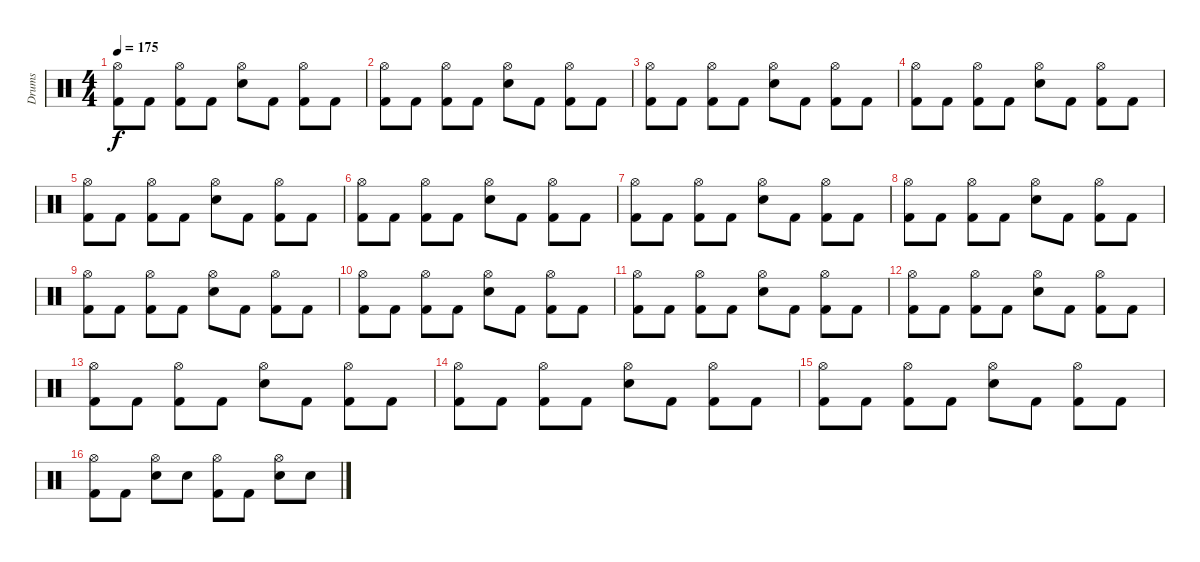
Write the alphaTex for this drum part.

\track ("Drums" "Drums") {instrument percussion}
\staff {score}
\articulation defaults
\ts (4 4)
\tempo 175
\clef neutral
\ks c
("Hi-Hat (open)" "Kick (hit) 2").8{dy f} "Kick (hit) 2".8 ("Hi-Hat (open)" "Kick (hit) 2").8 "Kick (hit) 2".8 ("Hi-Hat (open)" "Electric Snare (hit)").8 "Kick (hit) 2".8 ("Hi-Hat (open)" "Kick (hit) 2").8 "Kick (hit) 2".8 |
("Hi-Hat (open)" "Kick (hit) 2").8 "Kick (hit) 2".8 ("Hi-Hat (open)" "Kick (hit) 2").8 "Kick (hit) 2".8 ("Hi-Hat (open)" "Electric Snare (hit)").8 "Kick (hit) 2".8 ("Hi-Hat (open)" "Kick (hit) 2").8 "Kick (hit) 2".8 |
("Hi-Hat (open)" "Kick (hit) 2").8 "Kick (hit) 2".8 ("Hi-Hat (open)" "Kick (hit) 2").8 "Kick (hit) 2".8 ("Hi-Hat (open)" "Electric Snare (hit)").8 "Kick (hit) 2".8 ("Hi-Hat (open)" "Kick (hit) 2").8 "Kick (hit) 2".8 |
("Hi-Hat (open)" "Kick (hit) 2").8 "Kick (hit) 2".8 ("Hi-Hat (open)" "Kick (hit) 2").8 "Kick (hit) 2".8 ("Hi-Hat (open)" "Electric Snare (hit)").8 "Kick (hit) 2".8 ("Hi-Hat (open)" "Kick (hit) 2").8 "Kick (hit) 2".8 |
("Hi-Hat (open)" "Kick (hit) 2").8 "Kick (hit) 2".8 ("Hi-Hat (open)" "Kick (hit) 2").8 "Kick (hit) 2".8 ("Hi-Hat (open)" "Electric Snare (hit)").8 "Kick (hit) 2".8 ("Hi-Hat (open)" "Kick (hit) 2").8 "Kick (hit) 2".8 |
("Hi-Hat (open)" "Kick (hit) 2").8 "Kick (hit) 2".8 ("Hi-Hat (open)" "Kick (hit) 2").8 "Kick (hit) 2".8 ("Hi-Hat (open)" "Electric Snare (hit)").8 "Kick (hit) 2".8 ("Hi-Hat (open)" "Kick (hit) 2").8 "Kick (hit) 2".8 |
("Hi-Hat (open)" "Kick (hit) 2").8 "Kick (hit) 2".8 ("Hi-Hat (open)" "Kick (hit) 2").8 "Kick (hit) 2".8 ("Hi-Hat (open)" "Electric Snare (hit)").8 "Kick (hit) 2".8 ("Hi-Hat (open)" "Kick (hit) 2").8 "Kick (hit) 2".8 |
("Hi-Hat (open)" "Kick (hit) 2").8 "Kick (hit) 2".8 ("Hi-Hat (open)" "Kick (hit) 2").8 "Kick (hit) 2".8 ("Hi-Hat (open)" "Electric Snare (hit)").8 "Kick (hit) 2".8 ("Hi-Hat (open)" "Kick (hit) 2").8 "Kick (hit) 2".8 |
("Hi-Hat (open)" "Kick (hit) 2").8 "Kick (hit) 2".8 ("Hi-Hat (open)" "Kick (hit) 2").8 "Kick (hit) 2".8 ("Hi-Hat (open)" "Electric Snare (hit)").8 "Kick (hit) 2".8 ("Hi-Hat (open)" "Kick (hit) 2").8 "Kick (hit) 2".8 |
("Hi-Hat (open)" "Kick (hit) 2").8 "Kick (hit) 2".8 ("Hi-Hat (open)" "Kick (hit) 2").8 "Kick (hit) 2".8 ("Hi-Hat (open)" "Electric Snare (hit)").8 "Kick (hit) 2".8 ("Hi-Hat (open)" "Kick (hit) 2").8 "Kick (hit) 2".8 |
("Hi-Hat (open)" "Kick (hit) 2").8 "Kick (hit) 2".8 ("Hi-Hat (open)" "Kick (hit) 2").8 "Kick (hit) 2".8 ("Hi-Hat (open)" "Electric Snare (hit)").8 "Kick (hit) 2".8 ("Hi-Hat (open)" "Kick (hit) 2").8 "Kick (hit) 2".8 |
("Hi-Hat (open)" "Kick (hit) 2").8 "Kick (hit) 2".8 ("Hi-Hat (open)" "Kick (hit) 2").8 "Kick (hit) 2".8 ("Hi-Hat (open)" "Electric Snare (hit)").8 "Kick (hit) 2".8 ("Hi-Hat (open)" "Kick (hit) 2").8 "Kick (hit) 2".8 |
("Hi-Hat (open)" "Kick (hit) 2").8 "Kick (hit) 2".8 ("Hi-Hat (open)" "Kick (hit) 2").8 "Kick (hit) 2".8 ("Hi-Hat (open)" "Electric Snare (hit)").8 "Kick (hit) 2".8 ("Hi-Hat (open)" "Kick (hit) 2").8 "Kick (hit) 2".8 |
("Hi-Hat (open)" "Kick (hit) 2").8 "Kick (hit) 2".8 ("Hi-Hat (open)" "Kick (hit) 2").8 "Kick (hit) 2".8 ("Hi-Hat (open)" "Electric Snare (hit)").8 "Kick (hit) 2".8 ("Hi-Hat (open)" "Kick (hit) 2").8 "Kick (hit) 2".8 |
("Hi-Hat (open)" "Kick (hit) 2").8 "Kick (hit) 2".8 ("Hi-Hat (open)" "Kick (hit) 2").8 "Kick (hit) 2".8 ("Hi-Hat (open)" "Electric Snare (hit)").8 "Kick (hit) 2".8 ("Hi-Hat (open)" "Kick (hit) 2").8 "Kick (hit) 2".8 |
("Hi-Hat (open)" "Kick (hit) 2").8 "Kick (hit) 2".8 ("Hi-Hat (open)" "Electric Snare (hit)").8 "Electric Snare (hit)".8 ("Hi-Hat (open)" "Kick (hit) 2").8 "Kick (hit) 2".8 ("Hi-Hat (open)" "Electric Snare (hit)").8 "Electric Snare (hit)".8
